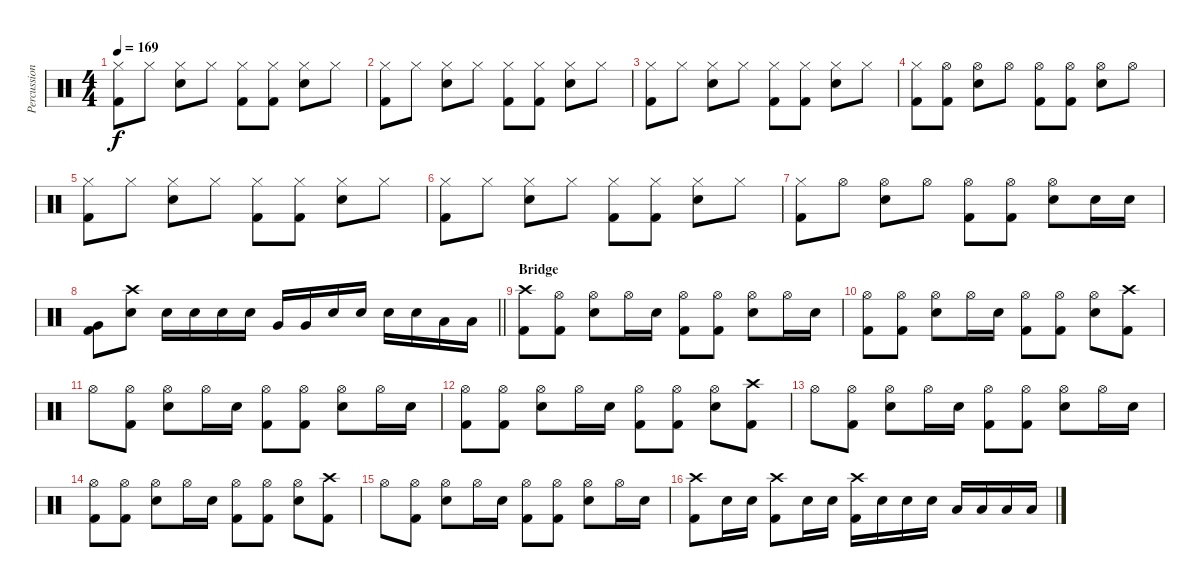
\track ("Percussion" "Percussion") {instrument percussion}
\staff {score}
\articulation defaults
\ts (4 4)
\tempo 169
\clef neutral
\ks c
("Hi-Hat (closed)" "Kick (hit) 2").8{dy f} "Hi-Hat (closed)".8 ("Hi-Hat (closed)" "Electric Snare (hit)").8 "Hi-Hat (closed)".8 ("Hi-Hat (closed)" "Kick (hit) 2").8 ("Hi-Hat (closed)" "Kick (hit) 2").8 ("Hi-Hat (closed)" "Electric Snare (hit)").8 "Hi-Hat (closed)".8 |
("Hi-Hat (closed)" "Kick (hit) 2").8 "Hi-Hat (closed)".8 ("Hi-Hat (closed)" "Electric Snare (hit)").8 "Hi-Hat (closed)".8 ("Hi-Hat (closed)" "Kick (hit) 2").8 ("Hi-Hat (closed)" "Kick (hit) 2").8 ("Hi-Hat (closed)" "Electric Snare (hit)").8 "Hi-Hat (closed)".8 |
("Hi-Hat (closed)" "Kick (hit) 2").8 "Hi-Hat (closed)".8 ("Hi-Hat (closed)" "Electric Snare (hit)").8 "Hi-Hat (closed)".8 ("Hi-Hat (closed)" "Kick (hit) 2").8 ("Hi-Hat (closed)" "Kick (hit) 2").8 ("Hi-Hat (closed)" "Electric Snare (hit)").8 "Hi-Hat (closed)".8 |
("Hi-Hat (closed)" "Kick (hit) 2").8 ("Hi-Hat (open)" "Kick (hit) 2").8 ("Hi-Hat (open)" "Electric Snare (hit)").8 "Hi-Hat (open)".8 ("Hi-Hat (open)" "Kick (hit) 2").8 ("Hi-Hat (open)" "Kick (hit) 2").8 ("Hi-Hat (open)" "Electric Snare (hit)").8 "Hi-Hat (open)".8 |
("Hi-Hat (closed)" "Kick (hit) 2").8 "Hi-Hat (closed)".8 ("Hi-Hat (closed)" "Electric Snare (hit)").8 "Hi-Hat (closed)".8 ("Hi-Hat (closed)" "Kick (hit) 2").8 ("Hi-Hat (closed)" "Kick (hit) 2").8 ("Hi-Hat (closed)" "Electric Snare (hit)").8 "Hi-Hat (closed)".8 |
("Hi-Hat (closed)" "Kick (hit) 2").8 "Hi-Hat (closed)".8 ("Hi-Hat (closed)" "Electric Snare (hit)").8 "Hi-Hat (closed)".8 ("Hi-Hat (closed)" "Kick (hit) 2").8 ("Hi-Hat (closed)" "Kick (hit) 2").8 ("Hi-Hat (closed)" "Electric Snare (hit)").8 "Hi-Hat (closed)".8 |
("Hi-Hat (closed)" "Kick (hit) 2").8 "Hi-Hat (open)".8 ("Hi-Hat (open)" "Electric Snare (hit)").8 "Hi-Hat (open)".8 ("Hi-Hat (open)" "Kick (hit) 2").8 ("Hi-Hat (open)" "Kick (hit) 2").8 ("Hi-Hat (open)" "Electric Snare (hit)").8 "Electric Snare (hit)".16 "Electric Snare (hit)".16 |
\barLineRight lightlight
("Very Low Tom (hit)" "Kick (hit) 2").8 ("Crash high (hit)" "Electric Snare (hit)").8 "Electric Snare (hit)".16 "Electric Snare (hit)".16 "Electric Snare (hit)".16 "Electric Snare (hit)".16 "Very Low Tom (hit)".16 "Very Low Tom (hit)".16 "Electric Snare (hit)".16 "Electric Snare (hit)".16 "Electric Snare (hit)".16 "Electric Snare (hit)".16 "Low Floor Tom (hit)".16 "Low Floor Tom (hit)".16 |
\section ("" "Bridge")
("Crash high (hit)" "Kick (hit) 2").8 ("Hi-Hat (open)" "Kick (hit) 2").8 ("Hi-Hat (open)" "Electric Snare (hit)").8 "Hi-Hat (open)".16 "Electric Snare (hit)".16 ("Hi-Hat (open)" "Kick (hit) 2").8 ("Hi-Hat (open)" "Kick (hit) 2").8 ("Hi-Hat (open)" "Electric Snare (hit)").8 "Hi-Hat (open)".16 "Electric Snare (hit)".16 |
("Hi-Hat (open)" "Kick (hit) 2").8 ("Hi-Hat (open)" "Kick (hit) 2").8 ("Hi-Hat (open)" "Electric Snare (hit)").8 "Hi-Hat (open)".16 "Electric Snare (hit)".16 ("Hi-Hat (open)" "Kick (hit) 2").8 ("Hi-Hat (open)" "Kick (hit) 2").8 ("Hi-Hat (open)" "Electric Snare (hit)").8 ("Crash high (hit)" "Kick (hit) 2").8 |
"Hi-Hat (open)".8 ("Hi-Hat (open)" "Kick (hit) 2").8 ("Hi-Hat (open)" "Electric Snare (hit)").8 "Hi-Hat (open)".16 "Electric Snare (hit)".16 ("Hi-Hat (open)" "Kick (hit) 2").8 ("Hi-Hat (open)" "Kick (hit) 2").8 ("Hi-Hat (open)" "Electric Snare (hit)").8 "Hi-Hat (open)".16 "Electric Snare (hit)".16 |
("Hi-Hat (open)" "Kick (hit) 2").8 ("Hi-Hat (open)" "Kick (hit) 2").8 ("Hi-Hat (open)" "Electric Snare (hit)").8 "Hi-Hat (open)".16 "Electric Snare (hit)".16 ("Hi-Hat (open)" "Kick (hit) 2").8 ("Hi-Hat (open)" "Kick (hit) 2").8 ("Hi-Hat (open)" "Electric Snare (hit)").8 ("Crash high (hit)" "Kick (hit) 2").8 |
"Hi-Hat (open)".8 ("Hi-Hat (open)" "Kick (hit) 2").8 ("Hi-Hat (open)" "Electric Snare (hit)").8 "Hi-Hat (open)".16 "Electric Snare (hit)".16 ("Hi-Hat (open)" "Kick (hit) 2").8 ("Hi-Hat (open)" "Kick (hit) 2").8 ("Hi-Hat (open)" "Electric Snare (hit)").8 "Hi-Hat (open)".16 "Electric Snare (hit)".16 |
("Hi-Hat (open)" "Kick (hit) 2").8 ("Hi-Hat (open)" "Kick (hit) 2").8 ("Hi-Hat (open)" "Electric Snare (hit)").8 "Hi-Hat (open)".16 "Electric Snare (hit)".16 ("Hi-Hat (open)" "Kick (hit) 2").8 ("Hi-Hat (open)" "Kick (hit) 2").8 ("Hi-Hat (open)" "Electric Snare (hit)").8 ("Crash high (hit)" "Kick (hit) 2").8 |
"Hi-Hat (open)".8 ("Hi-Hat (open)" "Kick (hit) 2").8 ("Hi-Hat (open)" "Electric Snare (hit)").8 "Hi-Hat (open)".16 "Electric Snare (hit)".16 ("Hi-Hat (open)" "Kick (hit) 2").8 ("Hi-Hat (open)" "Kick (hit) 2").8 ("Hi-Hat (open)" "Electric Snare (hit)").8 "Hi-Hat (open)".16 "Electric Snare (hit)".16 |
("Crash high (hit)" "Kick (hit) 2").8 "Electric Snare (hit)".16 "Electric Snare (hit)".16 ("Crash high (hit)" "Kick (hit) 2").8 "Electric Snare (hit)".16 "Electric Snare (hit)".16 ("Crash high (hit)" "Kick (hit) 2").16 "Electric Snare (hit)".16 "Electric Snare (hit)".16 "Electric Snare (hit)".16 "Low Floor Tom (hit)".16 "Low Floor Tom (hit)".16 "Low Floor Tom (hit)".16 "Low Floor Tom (hit)".16
